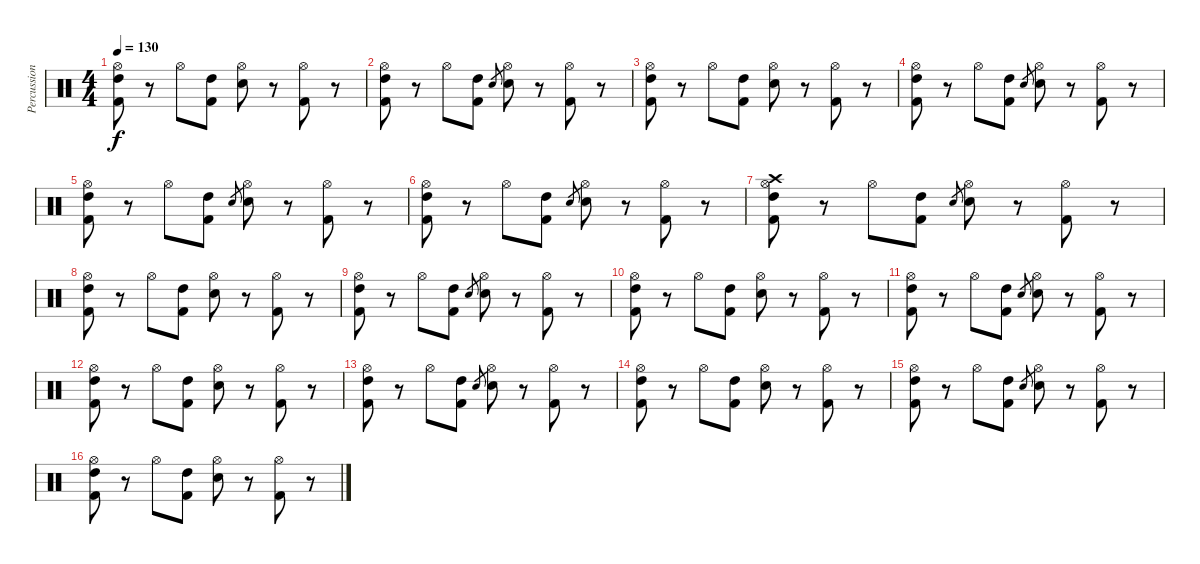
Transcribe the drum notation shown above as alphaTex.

\track ("Percussion" "Percussion") {instrument percussion}
\staff {score}
\articulation defaults
\ts (4 4)
\tempo 130
\clef neutral
\ks c
("Hi-Hat (open)" "High Tom (hit)" "Kick (hit) 2").8{dy f} r.8 "Hi-Hat (open)".8 ("High Tom (hit)" "Kick (hit) 2").8 ("Hi-Hat (open)" "Snare (hit) 2").8 r.8 ("Hi-Hat (open)" "Kick (hit) 2").8 r.8 |
("Hi-Hat (open)" "High Tom (hit)" "Kick (hit) 2").8 r.8 "Hi-Hat (open)".8 ("High Tom (hit)" "Kick (hit) 2").8 "Snare (hit) 2".8{gr} ("Hi-Hat (open)" "Snare (hit) 2").8 r.8 ("Hi-Hat (open)" "Kick (hit) 2").8 r.8 |
("Hi-Hat (open)" "High Tom (hit)" "Kick (hit) 2").8 r.8 "Hi-Hat (open)".8 ("High Tom (hit)" "Kick (hit) 2").8 ("Hi-Hat (open)" "Snare (hit) 2").8 r.8 ("Hi-Hat (open)" "Kick (hit) 2").8 r.8 |
("Hi-Hat (open)" "High Tom (hit)" "Kick (hit) 2").8 r.8 "Hi-Hat (open)".8 ("High Tom (hit)" "Kick (hit) 2").8 "Snare (hit) 2".8{gr} ("Hi-Hat (open)" "Snare (hit) 2").8 r.8 ("Hi-Hat (open)" "Kick (hit) 2").8 r.8 |
("Hi-Hat (open)" "High Tom (hit)" "Kick (hit) 2").8 r.8 "Hi-Hat (open)".8 ("High Tom (hit)" "Kick (hit) 2").8 "Snare (hit) 2".8{gr} ("Hi-Hat (open)" "Snare (hit) 2").8 r.8 ("Hi-Hat (open)" "Kick (hit) 2").8 r.8 |
("Hi-Hat (open)" "High Tom (hit)" "Kick (hit) 2").8 r.8 "Hi-Hat (open)".8 ("High Tom (hit)" "Kick (hit) 2").8 "Snare (hit) 2".8{gr} ("Hi-Hat (open)" "Snare (hit) 2").8 r.8 ("Hi-Hat (open)" "Kick (hit) 2").8 r.8 |
("Crash high (hit)" "Hi-Hat (open)" "High Tom (hit)" "Kick (hit) 2").8 r.8 "Hi-Hat (open)".8 ("High Tom (hit)" "Kick (hit) 2").8 "Snare (hit) 2".8{gr} ("Hi-Hat (open)" "Snare (hit) 2").8 r.8 ("Hi-Hat (open)" "Kick (hit) 2").8 r.8 |
("Hi-Hat (open)" "High Tom (hit)" "Kick (hit) 2").8 r.8 "Hi-Hat (open)".8 ("High Tom (hit)" "Kick (hit) 2").8 ("Hi-Hat (open)" "Snare (hit) 2").8 r.8 ("Hi-Hat (open)" "Kick (hit) 2").8 r.8 |
("Hi-Hat (open)" "High Tom (hit)" "Kick (hit) 2").8 r.8 "Hi-Hat (open)".8 ("High Tom (hit)" "Kick (hit) 2").8 "Snare (hit) 2".8{gr} ("Hi-Hat (open)" "Snare (hit) 2").8 r.8 ("Hi-Hat (open)" "Kick (hit) 2").8 r.8 |
("Hi-Hat (open)" "High Tom (hit)" "Kick (hit) 2").8 r.8 "Hi-Hat (open)".8 ("High Tom (hit)" "Kick (hit) 2").8 ("Hi-Hat (open)" "Snare (hit) 2").8 r.8 ("Hi-Hat (open)" "Kick (hit) 2").8 r.8 |
("Hi-Hat (open)" "High Tom (hit)" "Kick (hit) 2").8 r.8 "Hi-Hat (open)".8 ("High Tom (hit)" "Kick (hit) 2").8 "Snare (hit) 2".8{gr} ("Hi-Hat (open)" "Snare (hit) 2").8 r.8 ("Hi-Hat (open)" "Kick (hit) 2").8 r.8 |
("Hi-Hat (open)" "High Tom (hit)" "Kick (hit) 2").8 r.8 "Hi-Hat (open)".8 ("High Tom (hit)" "Kick (hit) 2").8 ("Hi-Hat (open)" "Snare (hit) 2").8 r.8 ("Hi-Hat (open)" "Kick (hit) 2").8 r.8 |
("Hi-Hat (open)" "High Tom (hit)" "Kick (hit) 2").8 r.8 "Hi-Hat (open)".8 ("High Tom (hit)" "Kick (hit) 2").8 "Snare (hit) 2".8{gr} ("Hi-Hat (open)" "Snare (hit) 2").8 r.8 ("Hi-Hat (open)" "Kick (hit) 2").8 r.8 |
("Hi-Hat (open)" "High Tom (hit)" "Kick (hit) 2").8 r.8 "Hi-Hat (open)".8 ("High Tom (hit)" "Kick (hit) 2").8 ("Hi-Hat (open)" "Snare (hit) 2").8 r.8 ("Hi-Hat (open)" "Kick (hit) 2").8 r.8 |
("Hi-Hat (open)" "High Tom (hit)" "Kick (hit) 2").8 r.8 "Hi-Hat (open)".8 ("High Tom (hit)" "Kick (hit) 2").8 "Snare (hit) 2".8{gr} ("Hi-Hat (open)" "Snare (hit) 2").8 r.8 ("Hi-Hat (open)" "Kick (hit) 2").8 r.8 |
("Hi-Hat (open)" "High Tom (hit)" "Kick (hit) 2").8 r.8 "Hi-Hat (open)".8 ("High Tom (hit)" "Kick (hit) 2").8 ("Hi-Hat (open)" "Snare (hit) 2").8 r.8 ("Hi-Hat (open)" "Kick (hit) 2").8 r.8
